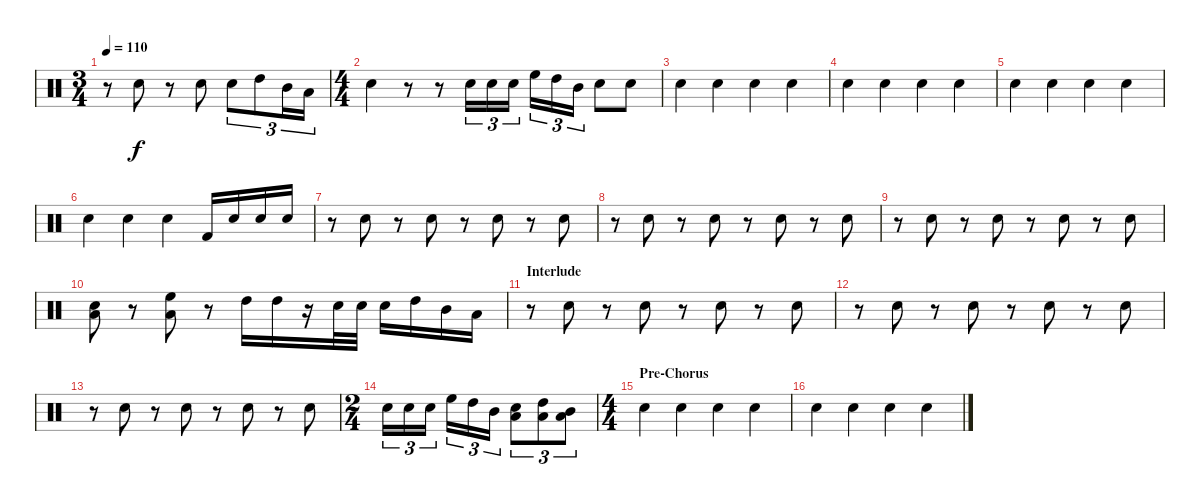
\track "" {instrument percussion}
\staff {score}
\articulation defaults
\ts (3 4)
\tempo 110
\clef neutral
\ks c
r.8{dy f} "Electric Snare (hit)".8 r.8 "Electric Snare (hit)".8 "Electric Snare (hit)".8{tu (3 2)} "High Tom (hit)".8{tu (3 2)} "Mid Tom (hit)".16{tu (3 2)} "Low Tom (hit)".16{tu (3 2)} |
\ts (4 4)
"Electric Snare (hit)".4 r.8 r.8 "Electric Snare (hit)".16{tu (3 2)} "Electric Snare (hit)".16{tu (3 2)} "Electric Snare (hit)".16{tu (3 2)} "High Floor Tom (hit)".16{tu (3 2)} "High Tom (hit)".16{tu (3 2)} "Mid Tom (hit)".16{tu (3 2)} "Electric Snare (hit)".8 "Electric Snare (hit)".8 |
"Electric Snare (hit)".4 "Electric Snare (hit)".4 "Electric Snare (hit)".4 "Electric Snare (hit)".4 |
"Electric Snare (hit)".4 "Electric Snare (hit)".4 "Electric Snare (hit)".4 "Electric Snare (hit)".4 |
"Electric Snare (hit)".4 "Electric Snare (hit)".4 "Electric Snare (hit)".4 "Electric Snare (hit)".4 |
"Electric Snare (hit)".4 "Electric Snare (hit)".4 "Electric Snare (hit)".4 "Kick (hit) 2".16 "Electric Snare (hit)".16 "Electric Snare (hit)".16 "Electric Snare (hit)".16 |
r.8 "Electric Snare (hit)".8 r.8 "Electric Snare (hit)".8 r.8 "Electric Snare (hit)".8 r.8 "Electric Snare (hit)".8 |
r.8 "Electric Snare (hit)".8 r.8 "Electric Snare (hit)".8 r.8 "Electric Snare (hit)".8 r.8 "Electric Snare (hit)".8 |
r.8 "Electric Snare (hit)".8 r.8 "Electric Snare (hit)".8 r.8 "Electric Snare (hit)".8 r.8 "Electric Snare (hit)".8 |
("Low Tom (hit)" "Electric Snare (hit)").8 r.8 ("Low Tom (hit)" "High Floor Tom (hit)").8 r.8 "High Tom (hit)".16 "High Tom (hit)".16 r.16 "Electric Snare (hit)".32 "Electric Snare (hit)".32 "Electric Snare (hit)".16 "High Tom (hit)".16 "Mid Tom (hit)".16 "Low Tom (hit)".16 |
\section ("" "Interlude")
r.8 "Electric Snare (hit)".8 r.8 "Electric Snare (hit)".8 r.8 "Electric Snare (hit)".8 r.8 "Electric Snare (hit)".8 |
r.8 "Electric Snare (hit)".8 r.8 "Electric Snare (hit)".8 r.8 "Electric Snare (hit)".8 r.8 "Electric Snare (hit)".8 |
r.8 "Electric Snare (hit)".8 r.8 "Electric Snare (hit)".8 r.8 "Electric Snare (hit)".8 r.8 "Electric Snare (hit)".8 |
\ts (2 4)
"Electric Snare (hit)".16{tu (3 2)} "Electric Snare (hit)".16{tu (3 2)} "Electric Snare (hit)".16{tu (3 2)} "High Floor Tom (hit)".16{tu (3 2)} "High Tom (hit)".16{tu (3 2)} "Mid Tom (hit)".16{tu (3 2)} ("Low Tom (hit)" "Electric Snare (hit)").8{tu (3 2)} ("Low Tom (hit)" "High Tom (hit)").8{tu (3 2)} ("Low Tom (hit)" "Mid Tom (hit)").8{tu (3 2)} |
\ts (4 4)
\section ("" "Pre-Chorus")
"Electric Snare (hit)".4 "Electric Snare (hit)".4 "Electric Snare (hit)".4 "Electric Snare (hit)".4 |
"Electric Snare (hit)".4 "Electric Snare (hit)".4 "Electric Snare (hit)".4 "Electric Snare (hit)".4
